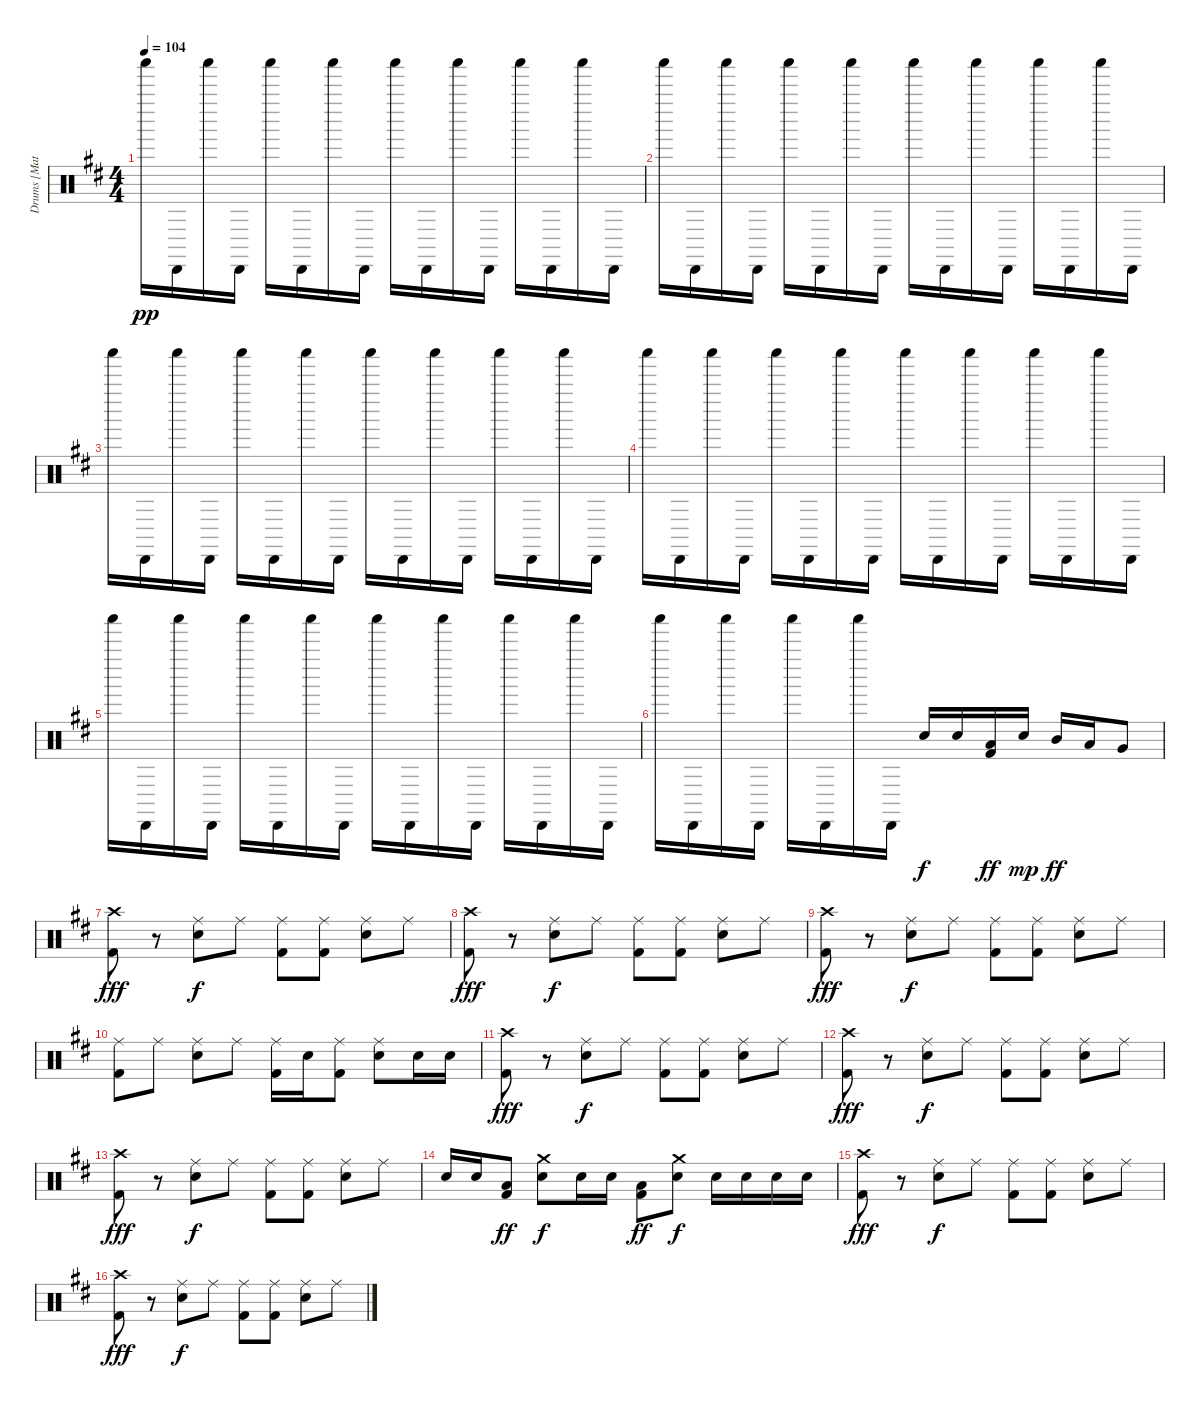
\track ("Drums [Matt]" "Drums [Mat") {instrument percussion}
\staff {score}
\articulation defaults
\ts (4 4)
\tempo 104
\clef neutral
\ks d "Shaker (hit)".16{dy pp} "Cabasa (hit)".16 "Shaker (hit)".16 "Cabasa (hit)".16 "Shaker (hit)".16 "Cabasa (hit)".16 "Shaker (hit)".16 "Cabasa (hit)".16 "Shaker (hit)".16 "Cabasa (hit)".16 "Shaker (hit)".16 "Cabasa (hit)".16 "Shaker (hit)".16 "Cabasa (hit)".16 "Shaker (hit)".16 "Cabasa (hit)".16
|
"Shaker (hit)".16 "Cabasa (hit)".16 "Shaker (hit)".16 "Cabasa (hit)".16 "Shaker (hit)".16 "Cabasa (hit)".16 "Shaker (hit)".16 "Cabasa (hit)".16 "Shaker (hit)".16 "Cabasa (hit)".16 "Shaker (hit)".16 "Cabasa (hit)".16 "Shaker (hit)".16 "Cabasa (hit)".16 "Shaker (hit)".16 "Cabasa (hit)".16 |
"Shaker (hit)".16 "Cabasa (hit)".16 "Shaker (hit)".16 "Cabasa (hit)".16 "Shaker (hit)".16 "Cabasa (hit)".16 "Shaker (hit)".16 "Cabasa (hit)".16 "Shaker (hit)".16 "Cabasa (hit)".16 "Shaker (hit)".16 "Cabasa (hit)".16 "Shaker (hit)".16 "Cabasa (hit)".16 "Shaker (hit)".16 "Cabasa (hit)".16 |
"Shaker (hit)".16 "Cabasa (hit)".16 "Shaker (hit)".16 "Cabasa (hit)".16 "Shaker (hit)".16 "Cabasa (hit)".16 "Shaker (hit)".16 "Cabasa (hit)".16 "Shaker (hit)".16 "Cabasa (hit)".16 "Shaker (hit)".16 "Cabasa (hit)".16 "Shaker (hit)".16 "Cabasa (hit)".16 "Shaker (hit)".16 "Cabasa (hit)".16 |
"Shaker (hit)".16 "Cabasa (hit)".16 "Shaker (hit)".16 "Cabasa (hit)".16 "Shaker (hit)".16 "Cabasa (hit)".16 "Shaker (hit)".16 "Cabasa (hit)".16 "Shaker (hit)".16 "Cabasa (hit)".16 "Shaker (hit)".16 "Cabasa (hit)".16 "Shaker (hit)".16 "Cabasa (hit)".16 "Shaker (hit)".16 "Cabasa (hit)".16 |
"Shaker (hit)".16 "Cabasa (hit)".16 "Shaker (hit)".16 "Cabasa (hit)".16 "Shaker (hit)".16 "Cabasa (hit)".16 "Shaker (hit)".16 "Cabasa (hit)".16 "Snare (hit) 2".16{dy f volume 15} "Snare (hit) 2".16 ("Kick (hit) 2" "Low Tom (hit)").16{dy ff} "Snare (hit) 2".16{dy mp} "Mid Tom (hit)".16{dy ff} "Low Tom (hit)".16 "Very Low Tom (hit)".8 |
("Kick (hit) 2" "Crash high (hit)").8{dy fff} r.8 ("Ride (middle)" "Snare (hit) 2").8{dy f} "Ride (middle)".8 ("Ride (middle)" "Kick (hit) 2").8 ("Ride (middle)" "Kick (hit) 2").8 ("Ride (middle)" "Snare (hit) 2").8 "Ride (middle)".8 |
("Kick (hit) 2" "Crash high (hit)").8{dy fff} r.8 ("Ride (middle)" "Snare (hit) 2").8{dy f} "Ride (middle)".8 ("Ride (middle)" "Kick (hit) 2").8 ("Ride (middle)" "Kick (hit) 2").8 ("Ride (middle)" "Snare (hit) 2").8 "Ride (middle)".8 |
("Kick (hit) 2" "Crash high (hit)").8{dy fff} r.8 ("Ride (middle)" "Snare (hit) 2").8{dy f} "Ride (middle)".8 ("Ride (middle)" "Kick (hit) 2").8 ("Ride (middle)" "Kick (hit) 2").8 ("Ride (middle)" "Snare (hit) 2").8 "Ride (middle)".8 |
("Ride (middle)" "Kick (hit) 2").8 "Ride (middle)".8 ("Ride (middle)" "Snare (hit) 2").8 "Ride (middle)".8 ("Ride (middle)" "Kick (hit) 2").16 "Snare (hit) 2".16 ("Ride (middle)" "Kick (hit) 2").8 ("Ride (middle)" "Snare (hit) 2").8 "Snare (hit) 2".16 "Snare (hit) 2".16 |
("Kick (hit) 2" "Crash high (hit)").8{dy fff} r.8 ("Ride (middle)" "Snare (hit) 2").8{dy f} "Ride (middle)".8 ("Ride (middle)" "Kick (hit) 2").8 ("Ride (middle)" "Kick (hit) 2").8 ("Ride (middle)" "Snare (hit) 2").8 "Ride (middle)".8 |
("Kick (hit) 2" "Crash high (hit)").8{dy fff} r.8 ("Ride (middle)" "Snare (hit) 2").8{dy f} "Ride (middle)".8 ("Ride (middle)" "Kick (hit) 2").8 ("Ride (middle)" "Kick (hit) 2").8 ("Ride (middle)" "Snare (hit) 2").8 "Ride (middle)".8 |
("Kick (hit) 2" "Crash high (hit)").8{dy fff} r.8 ("Ride (middle)" "Snare (hit) 2").8{dy f} "Ride (middle)".8 ("Ride (middle)" "Kick (hit) 2").8 ("Ride (middle)" "Kick (hit) 2").8 ("Ride (middle)" "Snare (hit) 2").8 "Ride (middle)".8 |
"Snare (hit) 2".16 "Snare (hit) 2".16 ("Kick (hit) 2" "Low Tom (hit)").8{dy ff} ("Snare (hit) 2" "Crash medium (hit)").8{dy f} "Snare (hit) 2".16 "Snare (hit) 2".16 ("Kick (hit) 2" "Low Tom (hit)").8{dy ff} ("Snare (hit) 2" "Crash medium (hit)").8{dy f} "Snare (hit) 2".16 "Snare (hit) 2".16 "Snare (hit) 2".16 "Snare (hit) 2".16 |
("Kick (hit) 2" "Crash high (hit)").8{dy fff} r.8 ("Ride (middle)" "Snare (hit) 2").8{dy f} "Ride (middle)".8 ("Ride (middle)" "Kick (hit) 2").8 ("Ride (middle)" "Kick (hit) 2").8 ("Ride (middle)" "Snare (hit) 2").8 "Ride (middle)".8 |
("Kick (hit) 2" "Crash high (hit)").8{dy fff} r.8 ("Ride (middle)" "Snare (hit) 2").8{dy f} "Ride (middle)".8 ("Ride (middle)" "Kick (hit) 2").8 ("Ride (middle)" "Kick (hit) 2").8 ("Ride (middle)" "Snare (hit) 2").8 "Ride (middle)".8
